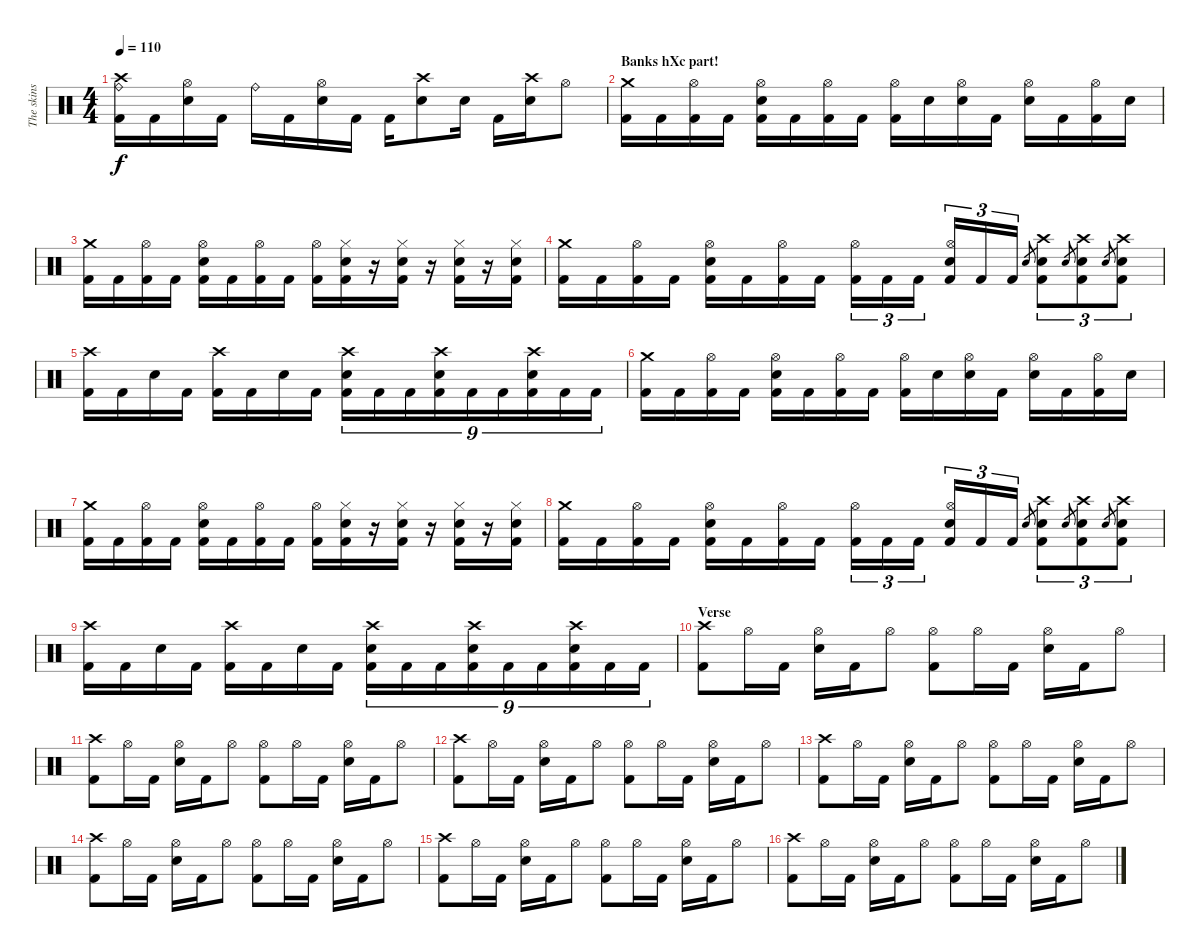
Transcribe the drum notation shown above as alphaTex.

\track ("The skins" "The skins") {instrument percussion}
\staff {score}
\articulation defaults
\ts (4 4)
\tempo 110
\clef neutral
\ks c
("Crash high (hit)" "Ride (bell)" "Kick (hit) 2").16{dy f} "Kick (hit) 2".16 ("Hi-Hat (open)" "Electric Snare (hit)").16 "Kick (hit) 2".16 "Ride (bell)".16 "Kick (hit) 2".16 ("Hi-Hat (open)" "Electric Snare (hit)").16 "Kick (hit) 2".16 "Kick (hit) 2".16 ("Crash high (hit)" "Electric Snare (hit)").8 "Electric Snare (hit)".16 "Kick (hit) 2".16 ("Crash high (hit)" "Electric Snare (hit)").16 "Hi-Hat (open)".8 |
\section ("" "Banks hXc part!")
("Crash medium (hit)" "Kick (hit) 2").16 "Kick (hit) 2".16 ("Hi-Hat (open)" "Kick (hit) 2").16 "Kick (hit) 2".16 ("Hi-Hat (open)" "Electric Snare (hit)" "Kick (hit) 2").16 "Kick (hit) 2".16 ("Hi-Hat (open)" "Kick (hit) 2").16 "Kick (hit) 2".16 ("Hi-Hat (open)" "Kick (hit) 2").16 "Electric Snare (hit)".16 ("Hi-Hat (open)" "Electric Snare (hit)").16 "Kick (hit) 2".16 ("Hi-Hat (open)" "Electric Snare (hit)").16 "Kick (hit) 2".16 ("Hi-Hat (open)" "Kick (hit) 2").16 "Electric Snare (hit)".16 |
("Crash medium (hit)" "Kick (hit) 2").16 "Kick (hit) 2".16 ("Hi-Hat (open)" "Kick (hit) 2").16 "Kick (hit) 2".16 ("Hi-Hat (open)" "Electric Snare (hit)" "Kick (hit) 2").16 "Kick (hit) 2".16 ("Hi-Hat (open)" "Kick (hit) 2").16 "Kick (hit) 2".16 ("Hi-Hat (open)" "Kick (hit) 2").16 ("Hi-Hat (closed)" "Electric Snare (hit)" "Kick (hit) 2").16 r.16 ("Hi-Hat (closed)" "Electric Snare (hit)" "Kick (hit) 2").16 r.16 ("Hi-Hat (closed)" "Electric Snare (hit)" "Kick (hit) 2").16 r.16 ("Hi-Hat (closed)" "Electric Snare (hit)" "Kick (hit) 2").16 |
("Crash medium (hit)" "Kick (hit) 2").16 "Kick (hit) 2".16 ("Hi-Hat (open)" "Kick (hit) 2").16 "Kick (hit) 2".16 ("Hi-Hat (open)" "Electric Snare (hit)" "Kick (hit) 2").16 "Kick (hit) 2".16 ("Hi-Hat (open)" "Kick (hit) 2").16 "Kick (hit) 2".16 ("Hi-Hat (open)" "Kick (hit) 2").16{tu (3 2)} "Kick (hit) 2".16{tu (3 2)} "Kick (hit) 2".16{tu (3 2)} ("Hi-Hat (open)" "Electric Snare (hit)" "Kick (hit) 2").16{tu (3 2)} "Kick (hit) 2".16{tu (3 2)} "Kick (hit) 2".16{tu (3 2)} "Electric Snare (hit)".8{gr} ("Crash high (hit)" "Electric Snare (hit)" "Kick (hit) 2").8{tu (3 2)} "Electric Snare (hit)".8{gr} ("Crash high (hit)" "Electric Snare (hit)" "Kick (hit) 2").8{tu (3 2)} "Electric Snare (hit)".8{gr} ("Crash high (hit)" "Electric Snare (hit)" "Kick (hit) 2").8{tu (3 2)} |
("Crash high (hit)" "Kick (hit) 2").16 "Kick (hit) 2".16 "Electric Snare (hit)".16 "Kick (hit) 2".16 ("Crash high (hit)" "Kick (hit) 2").16 "Kick (hit) 2".16 "Electric Snare (hit)".16 "Kick (hit) 2".16 ("Crash high (hit)" "Electric Snare (hit)" "Kick (hit) 2").16{tu (9 8)} "Kick (hit) 2".16{tu (9 8)} "Kick (hit) 2".16{tu (9 8)} ("Crash high (hit)" "Electric Snare (hit)" "Kick (hit) 2").16{tu (9 8)} "Kick (hit) 2".16{tu (9 8)} "Kick (hit) 2".16{tu (9 8)} ("Crash high (hit)" "Electric Snare (hit)" "Kick (hit) 2").16{tu (9 8)} "Kick (hit) 2".16{tu (9 8)} "Kick (hit) 2".16{tu (9 8)} |
("Crash medium (hit)" "Kick (hit) 2").16 "Kick (hit) 2".16 ("Hi-Hat (open)" "Kick (hit) 2").16 "Kick (hit) 2".16 ("Hi-Hat (open)" "Electric Snare (hit)" "Kick (hit) 2").16 "Kick (hit) 2".16 ("Hi-Hat (open)" "Kick (hit) 2").16 "Kick (hit) 2".16 ("Hi-Hat (open)" "Kick (hit) 2").16 "Electric Snare (hit)".16 ("Hi-Hat (open)" "Electric Snare (hit)").16 "Kick (hit) 2".16 ("Hi-Hat (open)" "Electric Snare (hit)").16 "Kick (hit) 2".16 ("Hi-Hat (open)" "Kick (hit) 2").16 "Electric Snare (hit)".16 |
("Crash medium (hit)" "Kick (hit) 2").16 "Kick (hit) 2".16 ("Hi-Hat (open)" "Kick (hit) 2").16 "Kick (hit) 2".16 ("Hi-Hat (open)" "Electric Snare (hit)" "Kick (hit) 2").16 "Kick (hit) 2".16 ("Hi-Hat (open)" "Kick (hit) 2").16 "Kick (hit) 2".16 ("Hi-Hat (open)" "Kick (hit) 2").16 ("Hi-Hat (closed)" "Electric Snare (hit)" "Kick (hit) 2").16 r.16 ("Hi-Hat (closed)" "Electric Snare (hit)" "Kick (hit) 2").16 r.16 ("Hi-Hat (closed)" "Electric Snare (hit)" "Kick (hit) 2").16 r.16 ("Hi-Hat (closed)" "Electric Snare (hit)" "Kick (hit) 2").16 |
("Crash medium (hit)" "Kick (hit) 2").16 "Kick (hit) 2".16 ("Hi-Hat (open)" "Kick (hit) 2").16 "Kick (hit) 2".16 ("Hi-Hat (open)" "Electric Snare (hit)" "Kick (hit) 2").16 "Kick (hit) 2".16 ("Hi-Hat (open)" "Kick (hit) 2").16 "Kick (hit) 2".16 ("Hi-Hat (open)" "Kick (hit) 2").16{tu (3 2)} "Kick (hit) 2".16{tu (3 2)} "Kick (hit) 2".16{tu (3 2)} ("Hi-Hat (open)" "Electric Snare (hit)" "Kick (hit) 2").16{tu (3 2)} "Kick (hit) 2".16{tu (3 2)} "Kick (hit) 2".16{tu (3 2)} "Electric Snare (hit)".8{gr} ("Crash high (hit)" "Electric Snare (hit)" "Kick (hit) 2").8{tu (3 2)} "Electric Snare (hit)".8{gr} ("Crash high (hit)" "Electric Snare (hit)" "Kick (hit) 2").8{tu (3 2)} "Electric Snare (hit)".8{gr} ("Crash high (hit)" "Electric Snare (hit)" "Kick (hit) 2").8{tu (3 2)} |
("Crash high (hit)" "Kick (hit) 2").16 "Kick (hit) 2".16 "Electric Snare (hit)".16 "Kick (hit) 2".16 ("Crash high (hit)" "Kick (hit) 2").16 "Kick (hit) 2".16 "Electric Snare (hit)".16 "Kick (hit) 2".16 ("Crash high (hit)" "Electric Snare (hit)" "Kick (hit) 2").16{tu (9 8)} "Kick (hit) 2".16{tu (9 8)} "Kick (hit) 2".16{tu (9 8)} ("Crash high (hit)" "Electric Snare (hit)" "Kick (hit) 2").16{tu (9 8)} "Kick (hit) 2".16{tu (9 8)} "Kick (hit) 2".16{tu (9 8)} ("Crash high (hit)" "Electric Snare (hit)" "Kick (hit) 2").16{tu (9 8)} "Kick (hit) 2".16{tu (9 8)} "Kick (hit) 2".16{tu (9 8)} |
\section ("" "Verse")
("Crash high (hit)" "Kick (hit) 2").8 "Hi-Hat (open)".16 "Kick (hit) 2".16 ("Hi-Hat (open)" "Electric Snare (hit)").16 "Kick (hit) 2".16 "Hi-Hat (open)".8 ("Hi-Hat (open)" "Kick (hit) 2").8 "Hi-Hat (open)".16 "Kick (hit) 2".16 ("Hi-Hat (open)" "Electric Snare (hit)").16 "Kick (hit) 2".16 "Hi-Hat (open)".8 |
("Crash high (hit)" "Kick (hit) 2").8 "Hi-Hat (open)".16 "Kick (hit) 2".16 ("Hi-Hat (open)" "Electric Snare (hit)").16 "Kick (hit) 2".16 "Hi-Hat (open)".8 ("Hi-Hat (open)" "Kick (hit) 2").8 "Hi-Hat (open)".16 "Kick (hit) 2".16 ("Hi-Hat (open)" "Electric Snare (hit)").16 "Kick (hit) 2".16 "Hi-Hat (open)".8 |
("Crash high (hit)" "Kick (hit) 2").8 "Hi-Hat (open)".16 "Kick (hit) 2".16 ("Hi-Hat (open)" "Electric Snare (hit)").16 "Kick (hit) 2".16 "Hi-Hat (open)".8 ("Hi-Hat (open)" "Kick (hit) 2").8 "Hi-Hat (open)".16 "Kick (hit) 2".16 ("Hi-Hat (open)" "Electric Snare (hit)").16 "Kick (hit) 2".16 "Hi-Hat (open)".8 |
("Crash high (hit)" "Kick (hit) 2").8 "Hi-Hat (open)".16 "Kick (hit) 2".16 ("Hi-Hat (open)" "Electric Snare (hit)").16 "Kick (hit) 2".16 "Hi-Hat (open)".8 ("Hi-Hat (open)" "Kick (hit) 2").8 "Hi-Hat (open)".16 "Kick (hit) 2".16 ("Hi-Hat (open)" "Electric Snare (hit)").16 "Kick (hit) 2".16 "Hi-Hat (open)".8 |
("Crash high (hit)" "Kick (hit) 2").8 "Hi-Hat (open)".16 "Kick (hit) 2".16 ("Hi-Hat (open)" "Electric Snare (hit)").16 "Kick (hit) 2".16 "Hi-Hat (open)".8 ("Hi-Hat (open)" "Kick (hit) 2").8 "Hi-Hat (open)".16 "Kick (hit) 2".16 ("Hi-Hat (open)" "Electric Snare (hit)").16 "Kick (hit) 2".16 "Hi-Hat (open)".8 |
("Crash high (hit)" "Kick (hit) 2").8 "Hi-Hat (open)".16 "Kick (hit) 2".16 ("Hi-Hat (open)" "Electric Snare (hit)").16 "Kick (hit) 2".16 "Hi-Hat (open)".8 ("Hi-Hat (open)" "Kick (hit) 2").8 "Hi-Hat (open)".16 "Kick (hit) 2".16 ("Hi-Hat (open)" "Electric Snare (hit)").16 "Kick (hit) 2".16 "Hi-Hat (open)".8 |
("Crash high (hit)" "Kick (hit) 2").8 "Hi-Hat (open)".16 "Kick (hit) 2".16 ("Hi-Hat (open)" "Electric Snare (hit)").16 "Kick (hit) 2".16 "Hi-Hat (open)".8 ("Hi-Hat (open)" "Kick (hit) 2").8 "Hi-Hat (open)".16 "Kick (hit) 2".16 ("Hi-Hat (open)" "Electric Snare (hit)").16 "Kick (hit) 2".16 "Hi-Hat (open)".8
